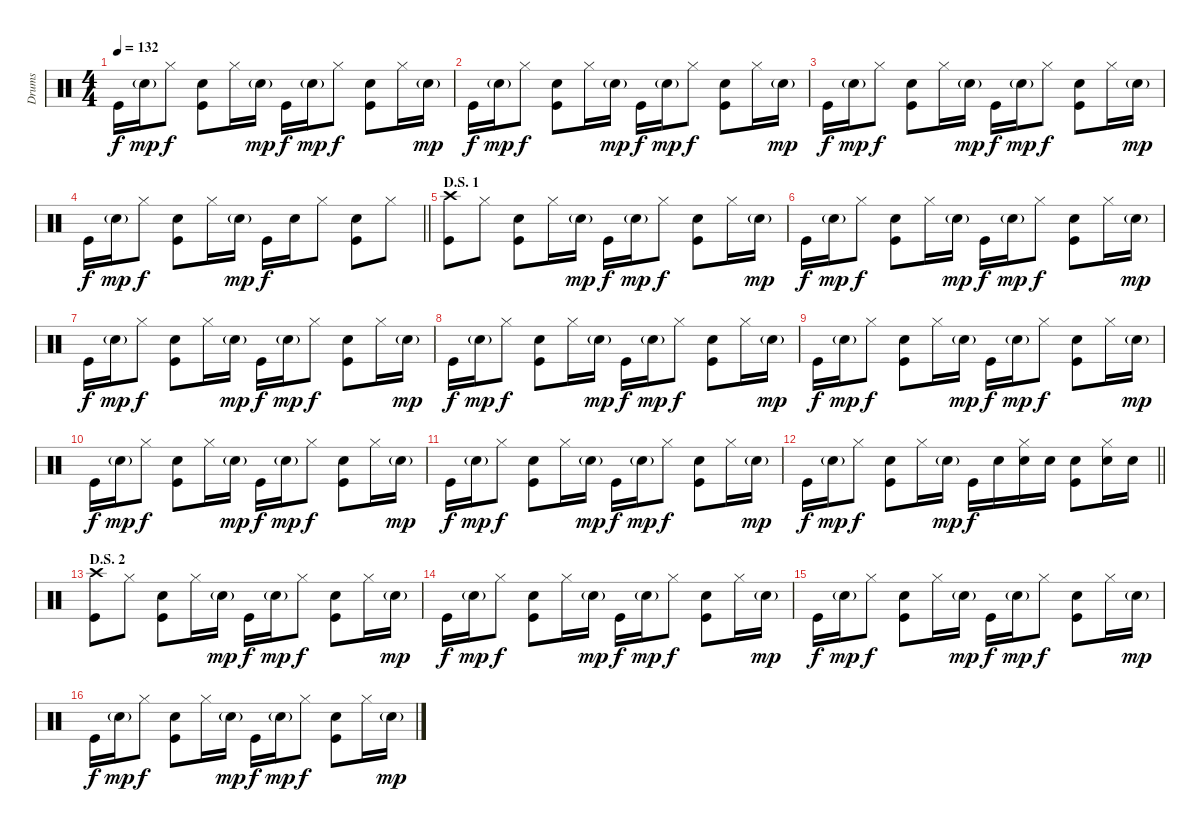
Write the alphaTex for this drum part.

\track ("Drums" "Drums") {instrument percussion}
\staff {score}
\articulation defaults
\ts (4 4)
\tempo 132
\clef neutral
\ks c "Kick (hit)".16{dy f} "Electric Snare (hit)"{g}.16{dy mp} "Hi-Hat (closed)".8{dy f}
("Electric Snare (hit)" "Kick (hit)").8 "Hi-Hat (closed)".16 "Electric Snare (hit)"{g}.16{dy mp} "Kick (hit)".16{dy f} "Electric Snare (hit)"{g}.16{dy mp} "Hi-Hat (closed)".8{dy f} ("Electric Snare (hit)" "Kick (hit)").8 "Hi-Hat (closed)".16 "Electric Snare (hit)"{g}.16{dy mp} |
"Kick (hit)".16{dy f} "Electric Snare (hit)"{g}.16{dy mp} "Hi-Hat (closed)".8{dy f} ("Electric Snare (hit)" "Kick (hit)").8 "Hi-Hat (closed)".16 "Electric Snare (hit)"{g}.16{dy mp} "Kick (hit)".16{dy f} "Electric Snare (hit)"{g}.16{dy mp} "Hi-Hat (closed)".8{dy f} ("Electric Snare (hit)" "Kick (hit)").8 "Hi-Hat (closed)".16 "Electric Snare (hit)"{g}.16{dy mp} |
"Kick (hit)".16{dy f} "Electric Snare (hit)"{g}.16{dy mp} "Hi-Hat (closed)".8{dy f} ("Electric Snare (hit)" "Kick (hit)").8 "Hi-Hat (closed)".16 "Electric Snare (hit)"{g}.16{dy mp} "Kick (hit)".16{dy f} "Electric Snare (hit)"{g}.16{dy mp} "Hi-Hat (closed)".8{dy f} ("Electric Snare (hit)" "Kick (hit)").8 "Hi-Hat (closed)".16 "Electric Snare (hit)"{g}.16{dy mp} |
\barLineRight lightlight "Kick (hit)".16{dy f} "Electric Snare (hit)"{g}.16{dy mp} "Hi-Hat (closed)".8{dy f}
("Electric Snare (hit)" "Kick (hit)").8 "Hi-Hat (closed)".16 "Electric Snare (hit)"{g}.16{dy mp} "Kick (hit)".16{dy f} "Electric Snare (hit)".16 "Hi-Hat (closed)".8 ("Electric Snare (hit)" "Kick (hit)").8 "Hi-Hat (closed)".8 |
\section ("" "D.S. 1")
("Crash high (hit)" "Kick (hit)").8 "Hi-Hat (closed)".8 ("Electric Snare (hit)" "Kick (hit)").8 "Hi-Hat (closed)".16 "Electric Snare (hit)"{g}.16{dy mp} "Kick (hit)".16{dy f} "Electric Snare (hit)"{g}.16{dy mp} "Hi-Hat (closed)".8{dy f} ("Electric Snare (hit)" "Kick (hit)").8 "Hi-Hat (closed)".16 "Electric Snare (hit)"{g}.16{dy mp} |
"Kick (hit)".16{dy f} "Electric Snare (hit)"{g}.16{dy mp} "Hi-Hat (closed)".8{dy f} ("Electric Snare (hit)" "Kick (hit)").8 "Hi-Hat (closed)".16 "Electric Snare (hit)"{g}.16{dy mp} "Kick (hit)".16{dy f} "Electric Snare (hit)"{g}.16{dy mp} "Hi-Hat (closed)".8{dy f} ("Electric Snare (hit)" "Kick (hit)").8 "Hi-Hat (closed)".16 "Electric Snare (hit)"{g}.16{dy mp} |
"Kick (hit)".16{dy f} "Electric Snare (hit)"{g}.16{dy mp} "Hi-Hat (closed)".8{dy f} ("Electric Snare (hit)" "Kick (hit)").8 "Hi-Hat (closed)".16 "Electric Snare (hit)"{g}.16{dy mp} "Kick (hit)".16{dy f} "Electric Snare (hit)"{g}.16{dy mp} "Hi-Hat (closed)".8{dy f} ("Electric Snare (hit)" "Kick (hit)").8 "Hi-Hat (closed)".16 "Electric Snare (hit)"{g}.16{dy mp} |
"Kick (hit)".16{dy f} "Electric Snare (hit)"{g}.16{dy mp} "Hi-Hat (closed)".8{dy f} ("Electric Snare (hit)" "Kick (hit)").8 "Hi-Hat (closed)".16 "Electric Snare (hit)"{g}.16{dy mp} "Kick (hit)".16{dy f} "Electric Snare (hit)"{g}.16{dy mp} "Hi-Hat (closed)".8{dy f} ("Electric Snare (hit)" "Kick (hit)").8 "Hi-Hat (closed)".16 "Electric Snare (hit)"{g}.16{dy mp} |
"Kick (hit)".16{dy f} "Electric Snare (hit)"{g}.16{dy mp} "Hi-Hat (closed)".8{dy f} ("Electric Snare (hit)" "Kick (hit)").8 "Hi-Hat (closed)".16 "Electric Snare (hit)"{g}.16{dy mp} "Kick (hit)".16{dy f} "Electric Snare (hit)"{g}.16{dy mp} "Hi-Hat (closed)".8{dy f} ("Electric Snare (hit)" "Kick (hit)").8 "Hi-Hat (closed)".16 "Electric Snare (hit)"{g}.16{dy mp} |
"Kick (hit)".16{dy f} "Electric Snare (hit)"{g}.16{dy mp} "Hi-Hat (closed)".8{dy f} ("Electric Snare (hit)" "Kick (hit)").8 "Hi-Hat (closed)".16 "Electric Snare (hit)"{g}.16{dy mp} "Kick (hit)".16{dy f} "Electric Snare (hit)"{g}.16{dy mp} "Hi-Hat (closed)".8{dy f} ("Electric Snare (hit)" "Kick (hit)").8 "Hi-Hat (closed)".16 "Electric Snare (hit)"{g}.16{dy mp} |
"Kick (hit)".16{dy f} "Electric Snare (hit)"{g}.16{dy mp} "Hi-Hat (closed)".8{dy f} ("Electric Snare (hit)" "Kick (hit)").8 "Hi-Hat (closed)".16 "Electric Snare (hit)"{g}.16{dy mp} "Kick (hit)".16{dy f} "Electric Snare (hit)"{g}.16{dy mp} "Hi-Hat (closed)".8{dy f} ("Electric Snare (hit)" "Kick (hit)").8 "Hi-Hat (closed)".16 "Electric Snare (hit)"{g}.16{dy mp} |
\barLineRight lightlight "Kick (hit)".16{dy f} "Electric Snare (hit)"{g}.16{dy mp} "Hi-Hat (closed)".8{dy f}
("Electric Snare (hit)" "Kick (hit)").8 "Hi-Hat (closed)".16 "Electric Snare (hit)"{g}.16{dy mp} "Kick (hit)".16{dy f} "Electric Snare (hit)".16 ("Hi-Hat (closed)" "Electric Snare (hit)").16 "Electric Snare (hit)".16 ("Electric Snare (hit)" "Kick (hit)").8 ("Hi-Hat (closed)" "Electric Snare (hit)").16 "Electric Snare (hit)".16 |
\section ("" "D.S. 2")
("Crash high (hit)" "Kick (hit)").8 "Hi-Hat (closed)".8 ("Electric Snare (hit)" "Kick (hit)").8 "Hi-Hat (closed)".16 "Electric Snare (hit)"{g}.16{dy mp} "Kick (hit)".16{dy f} "Electric Snare (hit)"{g}.16{dy mp} "Hi-Hat (closed)".8{dy f} ("Electric Snare (hit)" "Kick (hit)").8 "Hi-Hat (closed)".16 "Electric Snare (hit)"{g}.16{dy mp} |
"Kick (hit)".16{dy f} "Electric Snare (hit)"{g}.16{dy mp} "Hi-Hat (closed)".8{dy f} ("Electric Snare (hit)" "Kick (hit)").8 "Hi-Hat (closed)".16 "Electric Snare (hit)"{g}.16{dy mp} "Kick (hit)".16{dy f} "Electric Snare (hit)"{g}.16{dy mp} "Hi-Hat (closed)".8{dy f} ("Electric Snare (hit)" "Kick (hit)").8 "Hi-Hat (closed)".16 "Electric Snare (hit)"{g}.16{dy mp} |
"Kick (hit)".16{dy f} "Electric Snare (hit)"{g}.16{dy mp} "Hi-Hat (closed)".8{dy f} ("Electric Snare (hit)" "Kick (hit)").8 "Hi-Hat (closed)".16 "Electric Snare (hit)"{g}.16{dy mp} "Kick (hit)".16{dy f} "Electric Snare (hit)"{g}.16{dy mp} "Hi-Hat (closed)".8{dy f} ("Electric Snare (hit)" "Kick (hit)").8 "Hi-Hat (closed)".16 "Electric Snare (hit)"{g}.16{dy mp} |
"Kick (hit)".16{dy f} "Electric Snare (hit)"{g}.16{dy mp} "Hi-Hat (closed)".8{dy f} ("Electric Snare (hit)" "Kick (hit)").8 "Hi-Hat (closed)".16 "Electric Snare (hit)"{g}.16{dy mp} "Kick (hit)".16{dy f} "Electric Snare (hit)"{g}.16{dy mp} "Hi-Hat (closed)".8{dy f} ("Electric Snare (hit)" "Kick (hit)").8 "Hi-Hat (closed)".16 "Electric Snare (hit)"{g}.16{dy mp}
